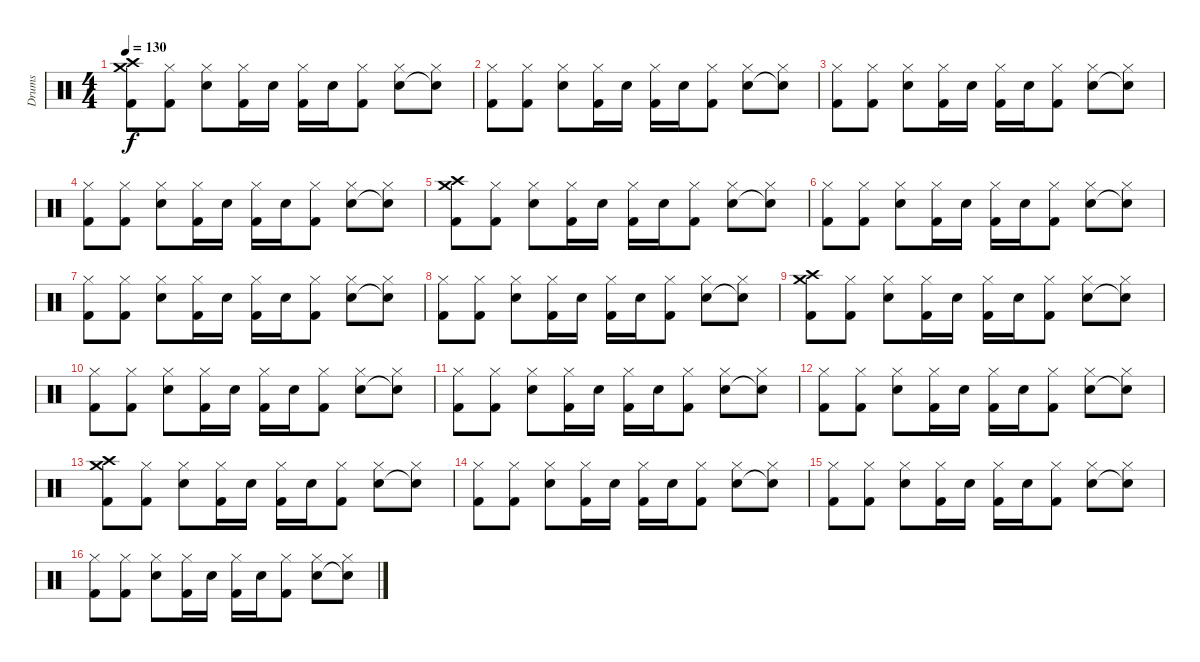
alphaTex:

\track ("Drums" "Drums") {instrument percussion}
\staff {score}
\articulation defaults
\ts (4 4)
\tempo 130
\clef neutral
\ks c
("Crash medium (hit)" "Crash high (hit)" "Kick (hit) 2").8{dy f} ("Hi-Hat (closed)" "Kick (hit) 2").8 ("Hi-Hat (closed)" "Snare (hit) 2").8 ("Hi-Hat (closed)" "Kick (hit) 2").16 "Snare (hit) 2".16 ("Hi-Hat (closed)" "Kick (hit) 2").16 "Snare (hit) 2".16 ("Hi-Hat (closed)" "Kick (hit) 2").8 ("Hi-Hat (closed)" "Snare (hit) 2").8 ("Hi-Hat (closed)" "Snare (hit)"{t}).8 |
("Hi-Hat (closed)" "Kick (hit) 2").8 ("Hi-Hat (closed)" "Kick (hit) 2").8 ("Hi-Hat (closed)" "Snare (hit) 2").8 ("Hi-Hat (closed)" "Kick (hit) 2").16 "Snare (hit) 2".16 ("Hi-Hat (closed)" "Kick (hit) 2").16 "Snare (hit) 2".16 ("Hi-Hat (closed)" "Kick (hit) 2").8 ("Hi-Hat (closed)" "Snare (hit) 2").8 ("Hi-Hat (closed)" "Snare (hit)"{t}).8 |
("Hi-Hat (closed)" "Kick (hit) 2").8 ("Hi-Hat (closed)" "Kick (hit) 2").8 ("Hi-Hat (closed)" "Snare (hit) 2").8 ("Hi-Hat (closed)" "Kick (hit) 2").16 "Snare (hit) 2".16 ("Hi-Hat (closed)" "Kick (hit) 2").16 "Snare (hit) 2".16 ("Hi-Hat (closed)" "Kick (hit) 2").8 ("Hi-Hat (closed)" "Snare (hit) 2").8 ("Hi-Hat (closed)" "Snare (hit)"{t}).8 |
("Hi-Hat (closed)" "Kick (hit) 2").8 ("Hi-Hat (closed)" "Kick (hit) 2").8 ("Hi-Hat (closed)" "Snare (hit) 2").8 ("Hi-Hat (closed)" "Kick (hit) 2").16 "Snare (hit) 2".16 ("Hi-Hat (closed)" "Kick (hit) 2").16 "Snare (hit) 2".16 ("Hi-Hat (closed)" "Kick (hit) 2").8 ("Hi-Hat (closed)" "Snare (hit) 2").8 ("Hi-Hat (closed)" "Snare (hit)"{t}).8 |
("Crash medium (hit)" "Crash high (hit)" "Kick (hit) 2").8 ("Hi-Hat (closed)" "Kick (hit) 2").8 ("Hi-Hat (closed)" "Snare (hit) 2").8 ("Hi-Hat (closed)" "Kick (hit) 2").16 "Snare (hit) 2".16 ("Hi-Hat (closed)" "Kick (hit) 2").16 "Snare (hit) 2".16 ("Hi-Hat (closed)" "Kick (hit) 2").8 ("Hi-Hat (closed)" "Snare (hit) 2").8 ("Hi-Hat (closed)" "Snare (hit)"{t}).8 |
("Hi-Hat (closed)" "Kick (hit) 2").8 ("Hi-Hat (closed)" "Kick (hit) 2").8 ("Hi-Hat (closed)" "Snare (hit) 2").8 ("Hi-Hat (closed)" "Kick (hit) 2").16 "Snare (hit) 2".16 ("Hi-Hat (closed)" "Kick (hit) 2").16 "Snare (hit) 2".16 ("Hi-Hat (closed)" "Kick (hit) 2").8 ("Hi-Hat (closed)" "Snare (hit) 2").8 ("Hi-Hat (closed)" "Snare (hit)"{t}).8 |
("Hi-Hat (closed)" "Kick (hit) 2").8 ("Hi-Hat (closed)" "Kick (hit) 2").8 ("Hi-Hat (closed)" "Snare (hit) 2").8 ("Hi-Hat (closed)" "Kick (hit) 2").16 "Snare (hit) 2".16 ("Hi-Hat (closed)" "Kick (hit) 2").16 "Snare (hit) 2".16 ("Hi-Hat (closed)" "Kick (hit) 2").8 ("Hi-Hat (closed)" "Snare (hit) 2").8 ("Hi-Hat (closed)" "Snare (hit)"{t}).8 |
("Hi-Hat (closed)" "Kick (hit) 2").8 ("Hi-Hat (closed)" "Kick (hit) 2").8 ("Hi-Hat (closed)" "Snare (hit) 2").8 ("Hi-Hat (closed)" "Kick (hit) 2").16 "Snare (hit) 2".16 ("Hi-Hat (closed)" "Kick (hit) 2").16 "Snare (hit) 2".16 ("Hi-Hat (closed)" "Kick (hit) 2").8 ("Hi-Hat (closed)" "Snare (hit) 2").8 ("Hi-Hat (closed)" "Snare (hit)"{t}).8 |
("Crash medium (hit)" "Crash high (hit)" "Kick (hit) 2").8 ("Hi-Hat (closed)" "Kick (hit) 2").8 ("Hi-Hat (closed)" "Snare (hit) 2").8 ("Hi-Hat (closed)" "Kick (hit) 2").16 "Snare (hit) 2".16 ("Hi-Hat (closed)" "Kick (hit) 2").16 "Snare (hit) 2".16 ("Hi-Hat (closed)" "Kick (hit) 2").8 ("Hi-Hat (closed)" "Snare (hit) 2").8 ("Hi-Hat (closed)" "Snare (hit)"{t}).8 |
("Hi-Hat (closed)" "Kick (hit) 2").8 ("Hi-Hat (closed)" "Kick (hit) 2").8 ("Hi-Hat (closed)" "Snare (hit) 2").8 ("Hi-Hat (closed)" "Kick (hit) 2").16 "Snare (hit) 2".16 ("Hi-Hat (closed)" "Kick (hit) 2").16 "Snare (hit) 2".16 ("Hi-Hat (closed)" "Kick (hit) 2").8 ("Hi-Hat (closed)" "Snare (hit) 2").8 ("Hi-Hat (closed)" "Snare (hit)"{t}).8 |
("Hi-Hat (closed)" "Kick (hit) 2").8 ("Hi-Hat (closed)" "Kick (hit) 2").8 ("Hi-Hat (closed)" "Snare (hit) 2").8 ("Hi-Hat (closed)" "Kick (hit) 2").16 "Snare (hit) 2".16 ("Hi-Hat (closed)" "Kick (hit) 2").16 "Snare (hit) 2".16 ("Hi-Hat (closed)" "Kick (hit) 2").8 ("Hi-Hat (closed)" "Snare (hit) 2").8 ("Hi-Hat (closed)" "Snare (hit)"{t}).8 |
("Hi-Hat (closed)" "Kick (hit) 2").8 ("Hi-Hat (closed)" "Kick (hit) 2").8 ("Hi-Hat (closed)" "Snare (hit) 2").8 ("Hi-Hat (closed)" "Kick (hit) 2").16 "Snare (hit) 2".16 ("Hi-Hat (closed)" "Kick (hit) 2").16 "Snare (hit) 2".16 ("Hi-Hat (closed)" "Kick (hit) 2").8 ("Hi-Hat (closed)" "Snare (hit) 2").8 ("Hi-Hat (closed)" "Snare (hit)"{t}).8 |
("Crash medium (hit)" "Crash high (hit)" "Kick (hit) 2").8 ("Hi-Hat (closed)" "Kick (hit) 2").8 ("Hi-Hat (closed)" "Snare (hit) 2").8 ("Hi-Hat (closed)" "Kick (hit) 2").16 "Snare (hit) 2".16 ("Hi-Hat (closed)" "Kick (hit) 2").16 "Snare (hit) 2".16 ("Hi-Hat (closed)" "Kick (hit) 2").8 ("Hi-Hat (closed)" "Snare (hit) 2").8 ("Hi-Hat (closed)" "Snare (hit)"{t}).8 |
("Hi-Hat (closed)" "Kick (hit) 2").8 ("Hi-Hat (closed)" "Kick (hit) 2").8 ("Hi-Hat (closed)" "Snare (hit) 2").8 ("Hi-Hat (closed)" "Kick (hit) 2").16 "Snare (hit) 2".16 ("Hi-Hat (closed)" "Kick (hit) 2").16 "Snare (hit) 2".16 ("Hi-Hat (closed)" "Kick (hit) 2").8 ("Hi-Hat (closed)" "Snare (hit) 2").8 ("Hi-Hat (closed)" "Snare (hit)"{t}).8 |
("Hi-Hat (closed)" "Kick (hit) 2").8 ("Hi-Hat (closed)" "Kick (hit) 2").8 ("Hi-Hat (closed)" "Snare (hit) 2").8 ("Hi-Hat (closed)" "Kick (hit) 2").16 "Snare (hit) 2".16 ("Hi-Hat (closed)" "Kick (hit) 2").16 "Snare (hit) 2".16 ("Hi-Hat (closed)" "Kick (hit) 2").8 ("Hi-Hat (closed)" "Snare (hit) 2").8 ("Hi-Hat (closed)" "Snare (hit)"{t}).8 |
("Hi-Hat (closed)" "Kick (hit) 2").8 ("Hi-Hat (closed)" "Kick (hit) 2").8 ("Hi-Hat (closed)" "Snare (hit) 2").8 ("Hi-Hat (closed)" "Kick (hit) 2").16 "Snare (hit) 2".16 ("Hi-Hat (closed)" "Kick (hit) 2").16 "Snare (hit) 2".16 ("Hi-Hat (closed)" "Kick (hit) 2").8 ("Hi-Hat (closed)" "Snare (hit) 2").8 ("Hi-Hat (closed)" "Snare (hit)"{t}).8
